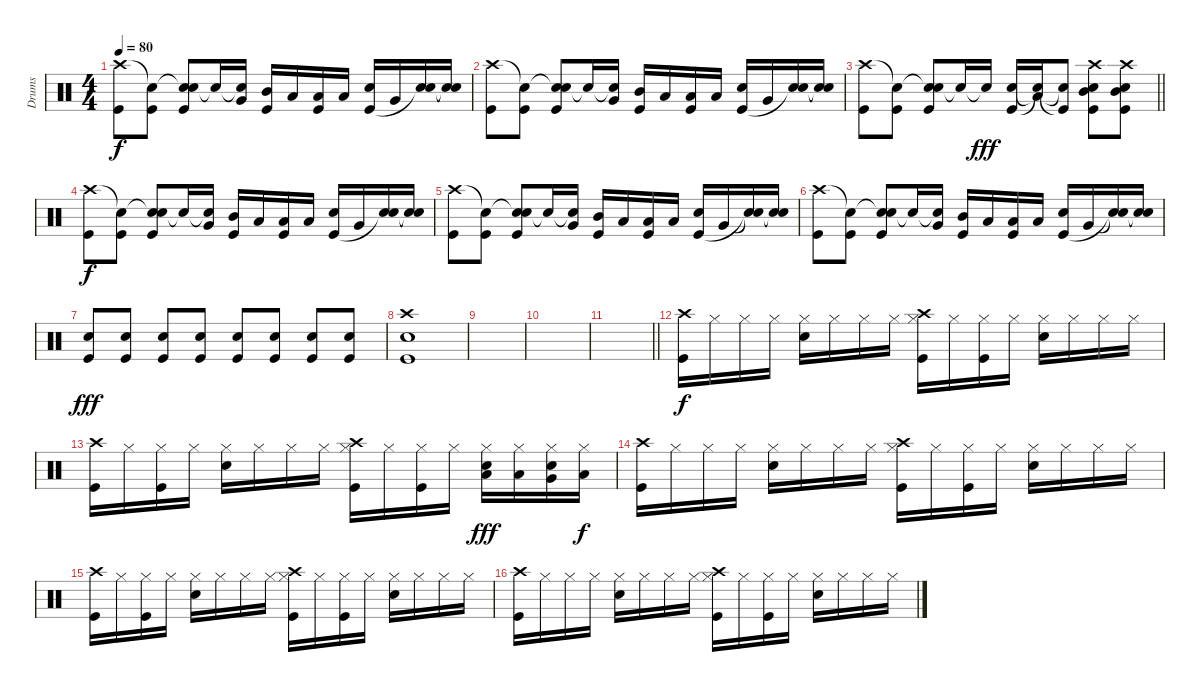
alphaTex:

\track ("Drums" "Drums") {instrument percussion}
\staff {score}
\articulation defaults
\ts (4 4)
\tempo 80
\clef neutral
\ks c
("Crash high (hit)" "Kick (hit)").8{dy f} ("Snare (hit)"{t} "Kick (hit)").8 ("Snare (hit)"{t} "Snare (hit) 2" "Kick (hit)").8 "Snare (hit)"{t}.16 ("Snare (hit)"{t} "Very Low Tom (hit)").16 ("Mid Tom (hit)" "Kick (hit)").16 "Low Tom (hit)".16 ("Low Tom (hit)" "Kick (hit)").16 "Low Tom (hit)".16 ("Snare (hit) 2" "Kick (hit)").16 "Very Low Tom (hit)".16 ("Snare (hit) 2" "Snare (hit)"{t}).16 ("Snare (hit)"{t} "Snare (hit)"{t}).16 |
("Crash high (hit)" "Kick (hit)").8 ("Snare (hit)"{t} "Kick (hit)").8 ("Snare (hit)"{t} "Snare (hit) 2" "Kick (hit)").8 "Snare (hit)"{t}.16 ("Snare (hit)"{t} "Very Low Tom (hit)").16 ("Mid Tom (hit)" "Kick (hit)").16 "Low Tom (hit)".16 ("Low Tom (hit)" "Kick (hit)").16 "Low Tom (hit)".16 ("Snare (hit) 2" "Kick (hit)").16 "Very Low Tom (hit)".16 ("Snare (hit) 2" "Snare (hit)"{t}).16 ("Snare (hit)"{t} "Snare (hit)"{t}).16 |
\barLineRight lightlight
("Crash high (hit)" "Kick (hit)").8 ("Snare (hit)"{t} "Kick (hit)").8 ("Snare (hit)"{t} "Snare (hit) 2" "Kick (hit)").8 "Snare (hit)"{t}.16 "Snare (hit)"{t}.16{dy fff} ("Snare (hit) 2" "Kick (hit)").16 ("Low Tom (hit)"{t} "Snare (hit)"{t}).16 ("Snare (hit) 2"{t} "Kick (hit)"{t}).8 ("Crash high (hit)" "Mid Tom (hit)" "Snare (hit) 2" "Kick (hit)").8 ("Crash high (hit)" "Mid Tom (hit)" "Snare (hit) 2" "Kick (hit)").8 |
("Crash high (hit)" "Kick (hit)").8{dy f} ("Snare (hit)"{t} "Kick (hit)").8 ("Snare (hit)"{t} "Snare (hit) 2" "Kick (hit)").8 "Snare (hit)"{t}.16 ("Snare (hit)"{t} "Very Low Tom (hit)").16 ("Mid Tom (hit)" "Kick (hit)").16 "Low Tom (hit)".16 ("Low Tom (hit)" "Kick (hit)").16 "Low Tom (hit)".16 ("Snare (hit) 2" "Kick (hit)").16 "Very Low Tom (hit)".16 ("Snare (hit) 2" "Snare (hit)"{t}).16 ("Snare (hit)"{t} "Snare (hit)"{t}).16 |
("Crash high (hit)" "Kick (hit)").8 ("Snare (hit)"{t} "Kick (hit)").8 ("Snare (hit)"{t} "Snare (hit) 2" "Kick (hit)").8 "Snare (hit)"{t}.16 ("Snare (hit)"{t} "Very Low Tom (hit)").16 ("Mid Tom (hit)" "Kick (hit)").16 "Low Tom (hit)".16 ("Low Tom (hit)" "Kick (hit)").16 "Low Tom (hit)".16 ("Snare (hit) 2" "Kick (hit)").16 "Very Low Tom (hit)".16 ("Snare (hit)"{t} "Snare (hit)"{t}).16 ("Snare (hit)"{t} "Snare (hit)"{t}).16 |
("Crash high (hit)" "Kick (hit)").8 ("Snare (hit)"{t} "Kick (hit)").8 ("Snare (hit)"{t} "Snare (hit) 2" "Kick (hit)").8 "Snare (hit)"{t}.16 ("Snare (hit)"{t} "Very Low Tom (hit)").16 ("Mid Tom (hit)" "Kick (hit)").16 "Low Tom (hit)".16 ("Low Tom (hit)" "Kick (hit)").16 "Low Tom (hit)".16 ("Snare (hit) 2" "Kick (hit)").16 "Very Low Tom (hit)".16 ("Snare (hit)"{t} "Snare (hit)"{t}).16 ("Snare (hit)"{t} "Snare (hit)"{t}).16 |
("Snare (hit) 2" "Kick (hit)").8{dy fff} ("Snare (hit) 2" "Kick (hit)").8 ("Snare (hit) 2" "Kick (hit)").8 ("Snare (hit) 2" "Kick (hit)").8 ("Snare (hit) 2" "Kick (hit)").8 ("Snare (hit) 2" "Kick (hit)").8 ("Snare (hit) 2" "Kick (hit)").8 ("Snare (hit) 2" "Kick (hit)").8 |
("Crash high (hit)" "Snare (hit) 2" "Kick (hit)").1 |
|
|
\barLineRight lightlight
|
("Crash high (hit)" "Kick (hit)").16{dy f} "Hi-Hat (closed)".16 "Hi-Hat (closed)".16 "Hi-Hat (closed)".16 ("Hi-Hat (closed)" "Snare (hit) 2").16 "Hi-Hat (closed)".16 "Hi-Hat (closed)".16 "Hi-Hat (closed)".16 ("Crash high (hit)" "Hi-Hat (closed)" "Kick (hit)").16 "Hi-Hat (closed)".16 ("Hi-Hat (closed)" "Kick (hit)").16 "Hi-Hat (closed)".16 ("Hi-Hat (closed)" "Snare (hit) 2").16 "Hi-Hat (closed)".16 "Hi-Hat (closed)".16 "Hi-Hat (closed)".16 |
("Crash high (hit)" "Kick (hit)").16 "Hi-Hat (closed)".16 ("Hi-Hat (closed)" "Kick (hit)").16 "Hi-Hat (closed)".16 ("Hi-Hat (closed)" "Snare (hit) 2").16 "Hi-Hat (closed)".16 "Hi-Hat (closed)".16 "Hi-Hat (closed)".16 ("Crash high (hit)" "Hi-Hat (closed)" "Kick (hit)").16 "Hi-Hat (closed)".16 ("Hi-Hat (closed)" "Kick (hit)").16 "Hi-Hat (closed)".16 ("Hi-Hat (closed)" "Snare (hit) 2" "Low Tom (hit)").16{dy fff} ("Hi-Hat (closed)" "Low Tom (hit)").16 ("Hi-Hat (closed)" "Snare (hit) 2" "Very Low Tom (hit)").16 ("Hi-Hat (closed)" "Low Floor Tom (hit)").16{dy f} |
("Crash high (hit)" "Kick (hit)").16 "Hi-Hat (closed)".16 "Hi-Hat (closed)".16 "Hi-Hat (closed)".16 ("Hi-Hat (closed)" "Snare (hit) 2").16 "Hi-Hat (closed)".16 "Hi-Hat (closed)".16 "Hi-Hat (closed)".16 ("Crash high (hit)" "Hi-Hat (closed)" "Kick (hit)").16 "Hi-Hat (closed)".16 ("Hi-Hat (closed)" "Kick (hit)").16 "Hi-Hat (closed)".16 ("Hi-Hat (closed)" "Snare (hit) 2").16 "Hi-Hat (closed)".16 "Hi-Hat (closed)".16 "Hi-Hat (closed)".16 |
("Crash high (hit)" "Kick (hit)").16 "Hi-Hat (closed)".16 ("Hi-Hat (closed)" "Kick (hit)").16 "Hi-Hat (closed)".16 ("Hi-Hat (closed)" "Snare (hit) 2").16 "Hi-Hat (closed)".16 "Hi-Hat (closed)".16 "Hi-Hat (closed)".16 ("Crash high (hit)" "Hi-Hat (closed)" "Kick (hit)").16 "Hi-Hat (closed)".16 ("Hi-Hat (closed)" "Kick (hit)").16 "Hi-Hat (closed)".16 ("Hi-Hat (closed)" "Snare (hit) 2").16 "Hi-Hat (closed)".16 "Hi-Hat (closed)".16 "Hi-Hat (closed)".16 |
("Crash high (hit)" "Kick (hit)").16 "Hi-Hat (closed)".16 "Hi-Hat (closed)".16 "Hi-Hat (closed)".16 ("Hi-Hat (closed)" "Snare (hit) 2").16 "Hi-Hat (closed)".16 "Hi-Hat (closed)".16 "Hi-Hat (closed)".16 ("Crash high (hit)" "Hi-Hat (closed)" "Kick (hit)").16 "Hi-Hat (closed)".16 ("Hi-Hat (closed)" "Kick (hit)").16 "Hi-Hat (closed)".16 ("Hi-Hat (closed)" "Snare (hit) 2").16 "Hi-Hat (closed)".16 "Hi-Hat (closed)".16 "Hi-Hat (closed)".16
